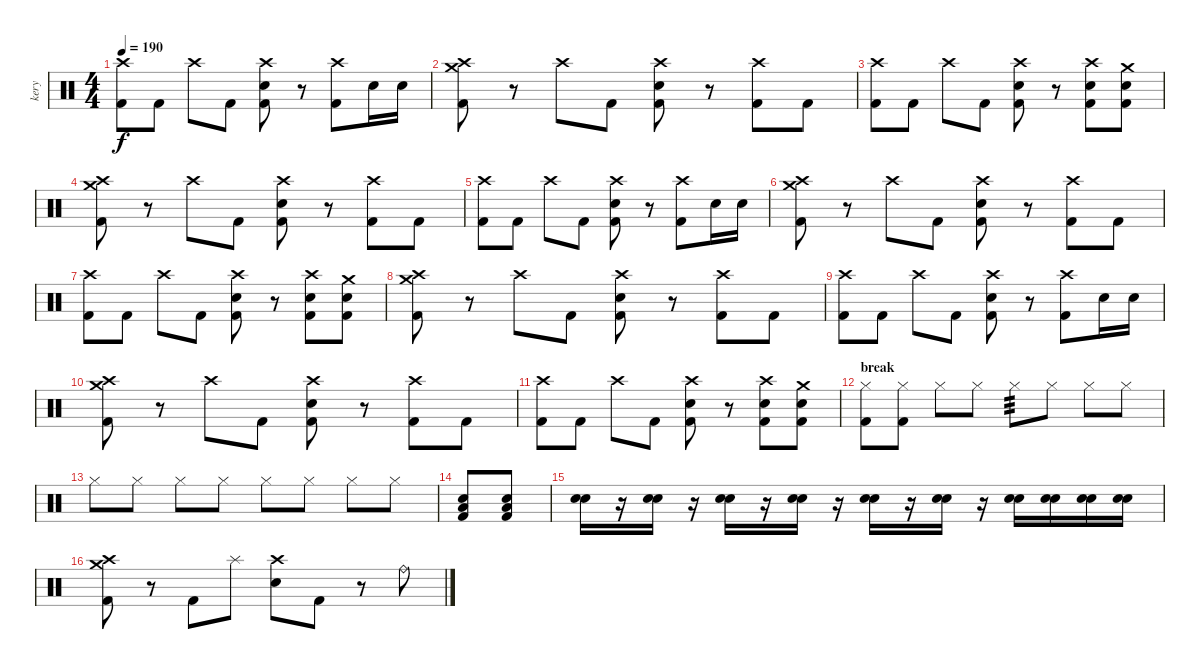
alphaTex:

\track ("kery" "kery") {instrument percussion}
\staff {score}
\articulation defaults
\ts (4 4)
\tempo 190
\clef neutral
\ks c
("Crash high (hit)" "Kick (hit) 2").8{dy f} "Kick (hit) 2".8 "Crash high (hit)".8 "Kick (hit) 2".8 ("Crash high (hit)" "Electric Snare (hit)" "Kick (hit) 2").8 r.8 ("Crash high (hit)" "Kick (hit) 2").8 "Electric Snare (hit)".16 "Electric Snare (hit)".16 |
("Crash high (hit)" "Crash medium (hit)" "Kick (hit) 2").8 r.8 "Crash high (hit)".8 "Kick (hit) 2".8 ("Crash high (hit)" "Electric Snare (hit)" "Kick (hit) 2").8 r.8 ("Crash high (hit)" "Kick (hit) 2").8 "Kick (hit) 2".8 |
("Crash high (hit)" "Kick (hit) 2").8 "Kick (hit) 2".8 "Crash high (hit)".8 "Kick (hit) 2".8 ("Crash high (hit)" "Electric Snare (hit)" "Kick (hit) 2").8 r.8 ("Crash high (hit)" "Electric Snare (hit)" "Kick (hit) 2").8 ("Crash medium (hit)" "Electric Snare (hit)" "Kick (hit) 2").8 |
("Crash high (hit)" "Crash medium (hit)" "Kick (hit) 2").8 r.8 "Crash high (hit)".8 "Kick (hit) 2".8 ("Crash high (hit)" "Electric Snare (hit)" "Kick (hit) 2").8 r.8 ("Crash high (hit)" "Kick (hit) 2").8 "Kick (hit) 2".8 |
("Crash high (hit)" "Kick (hit) 2").8 "Kick (hit) 2".8 "Crash high (hit)".8 "Kick (hit) 2".8 ("Crash high (hit)" "Electric Snare (hit)" "Kick (hit) 2").8 r.8 ("Crash high (hit)" "Kick (hit) 2").8 "Electric Snare (hit)".16 "Electric Snare (hit)".16 |
("Crash high (hit)" "Crash medium (hit)" "Kick (hit) 2").8 r.8 "Crash high (hit)".8 "Kick (hit) 2".8 ("Crash high (hit)" "Electric Snare (hit)" "Kick (hit) 2").8 r.8 ("Crash high (hit)" "Kick (hit) 2").8 "Kick (hit) 2".8 |
("Crash high (hit)" "Kick (hit) 2").8 "Kick (hit) 2".8 "Crash high (hit)".8 "Kick (hit) 2".8 ("Crash high (hit)" "Electric Snare (hit)" "Kick (hit) 2").8 r.8 ("Crash high (hit)" "Electric Snare (hit)" "Kick (hit) 2").8 ("Crash medium (hit)" "Electric Snare (hit)" "Kick (hit) 2").8 |
("Crash high (hit)" "Crash medium (hit)" "Kick (hit) 2").8 r.8 "Crash high (hit)".8 "Kick (hit) 2".8 ("Crash high (hit)" "Electric Snare (hit)" "Kick (hit) 2").8 r.8 ("Crash high (hit)" "Kick (hit) 2").8 "Kick (hit) 2".8 |
("Crash high (hit)" "Kick (hit) 2").8 "Kick (hit) 2".8 "Crash high (hit)".8 "Kick (hit) 2".8 ("Crash high (hit)" "Electric Snare (hit)" "Kick (hit) 2").8 r.8 ("Crash high (hit)" "Kick (hit) 2").8 "Electric Snare (hit)".16 "Electric Snare (hit)".16 |
("Crash high (hit)" "Crash medium (hit)" "Kick (hit) 2").8 r.8 "Crash high (hit)".8 "Kick (hit) 2".8 ("Crash high (hit)" "Electric Snare (hit)" "Kick (hit) 2").8 r.8 ("Crash high (hit)" "Kick (hit) 2").8 "Kick (hit) 2".8 |
("Crash high (hit)" "Kick (hit) 2").8 "Kick (hit) 2".8 "Crash high (hit)".8 "Kick (hit) 2".8 ("Crash high (hit)" "Electric Snare (hit)" "Kick (hit) 2").8 r.8 ("Crash high (hit)" "Electric Snare (hit)" "Kick (hit) 2").8 ("Crash medium (hit)" "Electric Snare (hit)" "Kick (hit) 2").8 |
\section ("" "break")
("Hi-Hat (closed)" "Kick (hit) 2").8 ("Hi-Hat (closed)" "Kick (hit) 2").8 "Hi-Hat (closed)".8 "Hi-Hat (closed)".8 "Hi-Hat (closed)".8{tp 3} "Hi-Hat (closed)".8 "Hi-Hat (closed)".8 "Hi-Hat (closed)".8 |
"Hi-Hat (closed)".8 "Hi-Hat (closed)".8 "Hi-Hat (closed)".8 "Hi-Hat (closed)".8 "Hi-Hat (closed)".8 "Hi-Hat (closed)".8 "Hi-Hat (closed)".8 "Hi-Hat (closed)".8 |
("Low Floor Tom (hit)" "Electric Snare (hit)" "Kick (hit) 2").8 ("Low Floor Tom (hit)" "Electric Snare (hit)" "Kick (hit) 2").8 |
("Electric Snare (hit)" "Hand Clap (hit)").16 r.16 ("Electric Snare (hit)" "Hand Clap (hit)").16 r.16 ("Electric Snare (hit)" "Hand Clap (hit)").16 r.16 ("Electric Snare (hit)" "Hand Clap (hit)").16 r.16 ("Electric Snare (hit)" "Hand Clap (hit)").16 r.16 ("Electric Snare (hit)" "Hand Clap (hit)").16 r.16 ("Electric Snare (hit)" "Hand Clap (hit)").16 ("Electric Snare (hit)" "Hand Clap (hit)").16 ("Electric Snare (hit)" "Hand Clap (hit)").16 ("Electric Snare (hit)" "Hand Clap (hit)").16 |
("Crash high (hit)" "Crash medium (hit)" "Kick (hit) 2").8 r.8 "Kick (hit) 2".8 "Splash (hit)".8 ("Crash high (hit)" "Electric Snare (hit)").8 "Kick (hit) 2".8 r.8 "Ride (bell)".8
